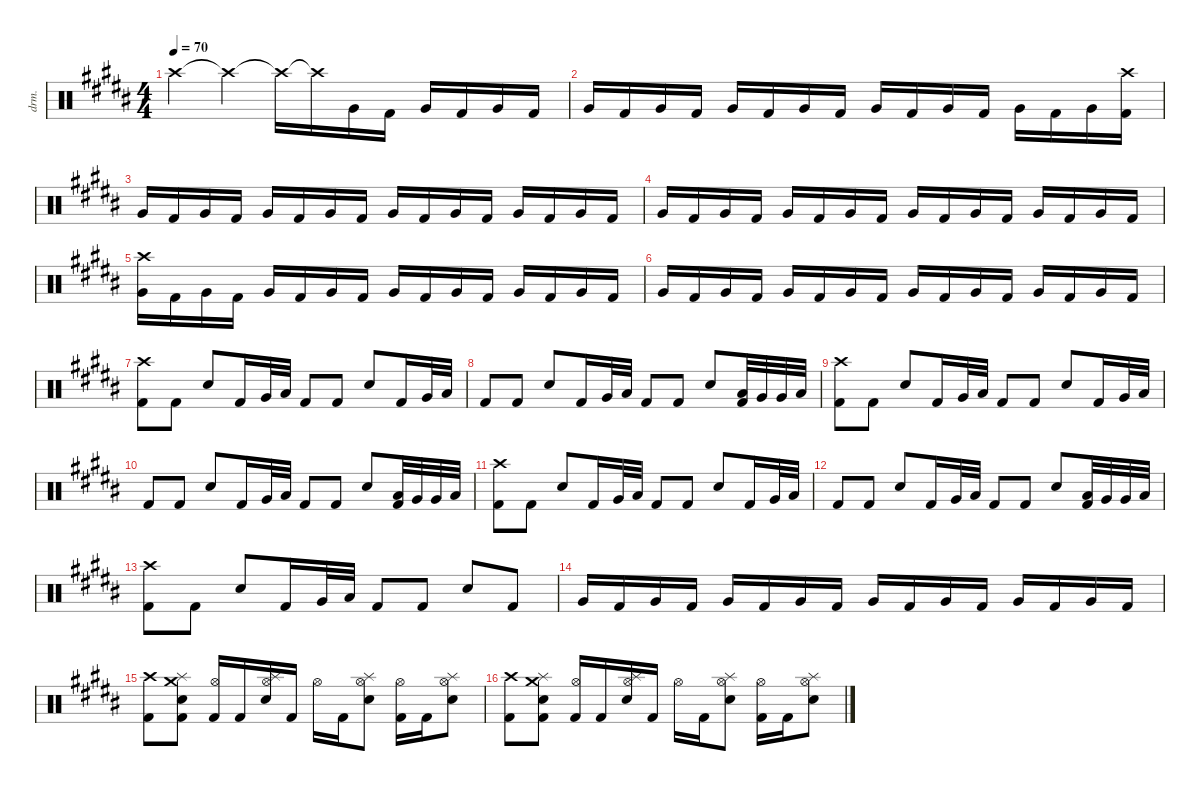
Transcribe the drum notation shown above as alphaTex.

\defaultSystemsLayout 4
\hideDynamics
\bracketExtendMode nobrackets
\otherSystemsTrackNameOrientation horizontal
\track ("Drums" "drm.") {defaultSystemsLayout 4 instrument percussion}
\staff {score}
\articulation defaults
\ts (4 4)
\tempo 70
\clef neutral
\ks b "Crash high (hit)"{t acc forcenatural}.4{dy f beam Down} "Crash high (hit)"{t acc forcenatural}.4{beam Down} "Crash high (hit)"{t acc forcenatural}.16{beam Down} "Crash high (hit)"{t acc forcenatural}.16{beam Down} "Very Low Tom (hit)"{acc forcenatural}.16{beam Down} "Kick (hit) 2"{acc forcenatural}.16{beam Down} "Very Low Tom (hit)"{acc forcenatural}.16{beam Up} "Kick (hit) 2"{acc forcenatural}.16{beam Up} "Very Low Tom (hit)"{acc forcenatural}.16{beam Up} "Kick (hit) 2"{acc forcenatural}.16{beam Up}
|
"Very Low Tom (hit)"{acc forcenatural}.16{beam Up} "Kick (hit) 2"{acc forcenatural}.16{beam Up} "Very Low Tom (hit)"{acc forcenatural}.16{beam Up} "Kick (hit) 2"{acc forcenatural}.16{beam Up} "Very Low Tom (hit)"{acc forcenatural}.16{beam Up} "Kick (hit) 2"{acc forcenatural}.16{beam Up} "Very Low Tom (hit)"{acc forcenatural}.16{beam Up} "Kick (hit) 2"{acc forcenatural}.16{beam Up} "Very Low Tom (hit)"{acc forcenatural}.16{beam Up} "Kick (hit) 2"{acc forcenatural}.16{beam Up} "Very Low Tom (hit)"{acc forcenatural}.16{beam Up} "Kick (hit) 2"{acc forcenatural}.16{beam Up} "Very Low Tom (hit)"{acc forcenatural}.16{beam Down} "Kick (hit) 2"{acc forcenatural}.16{beam Down} "Very Low Tom (hit)"{acc forcenatural}.16{beam Down} ("Crash high (hit)"{acc forcenatural} "Kick (hit) 2"{acc forcenatural}).16{beam Down} |
"Very Low Tom (hit)"{acc forcenatural}.16{beam Up} "Kick (hit) 2"{acc forcenatural}.16{beam Up} "Very Low Tom (hit)"{acc forcenatural}.16{beam Up} "Kick (hit) 2"{acc forcenatural}.16{beam Up} "Very Low Tom (hit)"{acc forcenatural}.16{beam Up} "Kick (hit) 2"{acc forcenatural}.16{beam Up} "Very Low Tom (hit)"{acc forcenatural}.16{beam Up} "Kick (hit) 2"{acc forcenatural}.16{beam Up} "Very Low Tom (hit)"{acc forcenatural}.16{beam Up} "Kick (hit) 2"{acc forcenatural}.16{beam Up} "Very Low Tom (hit)"{acc forcenatural}.16{beam Up} "Kick (hit) 2"{acc forcenatural}.16{beam Up} "Very Low Tom (hit)"{acc forcenatural}.16{beam Up} "Kick (hit) 2"{acc forcenatural}.16{beam Up} "Very Low Tom (hit)"{acc forcenatural}.16{beam Up} "Kick (hit) 2"{acc forcenatural}.16{beam Up} |
"Very Low Tom (hit)"{acc forcenatural}.16{beam Up} "Kick (hit) 2"{acc forcenatural}.16{beam Up} "Very Low Tom (hit)"{acc forcenatural}.16{beam Up} "Kick (hit) 2"{acc forcenatural}.16{beam Up} "Very Low Tom (hit)"{acc forcenatural}.16{beam Up} "Kick (hit) 2"{acc forcenatural}.16{beam Up} "Very Low Tom (hit)"{acc forcenatural}.16{beam Up} "Kick (hit) 2"{acc forcenatural}.16{beam Up} "Very Low Tom (hit)"{acc forcenatural}.16{beam Up} "Kick (hit) 2"{acc forcenatural}.16{beam Up} "Very Low Tom (hit)"{acc forcenatural}.16{beam Up} "Kick (hit) 2"{acc forcenatural}.16{beam Up} "Very Low Tom (hit)"{acc forcenatural}.16{beam Up} "Kick (hit) 2"{acc forcenatural}.16{beam Up} "Very Low Tom (hit)"{acc forcenatural}.16{beam Up} "Kick (hit) 2"{acc forcenatural}.16{beam Up} |
("Crash high (hit)"{acc forcenatural} "Very Low Tom (hit)"{acc forcenatural}).16{beam Down} "Kick (hit) 2"{acc forcenatural}.16{beam Down} "Very Low Tom (hit)"{acc forcenatural}.16{beam Down} "Kick (hit) 2"{acc forcenatural}.16{beam Down} "Very Low Tom (hit)"{acc forcenatural}.16{beam Up} "Kick (hit) 2"{acc forcenatural}.16{beam Up} "Very Low Tom (hit)"{acc forcenatural}.16{beam Up} "Kick (hit) 2"{acc forcenatural}.16{beam Up} "Very Low Tom (hit)"{acc forcenatural}.16{beam Up} "Kick (hit) 2"{acc forcenatural}.16{beam Up} "Very Low Tom (hit)"{acc forcenatural}.16{beam Up} "Kick (hit) 2"{acc forcenatural}.16{beam Up} "Very Low Tom (hit)"{acc forcenatural}.16{beam Up} "Kick (hit) 2"{acc forcenatural}.16{beam Up} "Very Low Tom (hit)"{acc forcenatural}.16{beam Up} "Kick (hit) 2"{acc forcenatural}.16{beam Up} |
"Very Low Tom (hit)"{acc forcenatural}.16{beam Up} "Kick (hit) 2"{acc forcenatural}.16{beam Up} "Very Low Tom (hit)"{acc forcenatural}.16{beam Up} "Kick (hit) 2"{acc forcenatural}.16{beam Up} "Very Low Tom (hit)"{acc forcenatural}.16{beam Up} "Kick (hit) 2"{acc forcenatural}.16{beam Up} "Very Low Tom (hit)"{acc forcenatural}.16{beam Up} "Kick (hit) 2"{acc forcenatural}.16{beam Up} "Very Low Tom (hit)"{acc forcenatural}.16{beam Up} "Kick (hit) 2"{acc forcenatural}.16{beam Up} "Very Low Tom (hit)"{acc forcenatural}.16{beam Up} "Kick (hit) 2"{acc forcenatural}.16{beam Up} "Very Low Tom (hit)"{acc forcenatural}.16{beam Up} "Kick (hit) 2"{acc forcenatural}.16{beam Up} "Very Low Tom (hit)"{acc forcenatural}.16{beam Up} "Kick (hit) 2"{acc forcenatural}.16{beam Up} |
("Crash high (hit)"{acc forcenatural} "Kick (hit) 2"{acc forcenatural}).8{beam Down} "Kick (hit) 2"{acc forcenatural}.8{beam Down} "Snare (hit) 2"{acc forcenatural}.8{beam Up} "Kick (hit) 2"{acc forcenatural}.16{beam Up} "Very Low Tom (hit)"{acc forcenatural}.32{beam Up} "Low Floor Tom (hit)"{acc forcenatural}.32{beam Up} "Kick (hit) 2"{acc forcenatural}.8{beam Up} "Kick (hit) 2"{acc forcenatural}.8{beam Up} "Snare (hit) 2"{acc forcenatural}.8{beam Up} "Kick (hit) 2"{acc forcenatural}.16{beam Up} "Very Low Tom (hit)"{acc forcenatural}.32{beam Up} "Low Floor Tom (hit)"{acc forcenatural}.32{beam Up} |
"Kick (hit) 2"{acc forcenatural}.8{beam Up} "Kick (hit) 2"{acc forcenatural}.8{beam Up} "Snare (hit) 2"{acc forcenatural}.8{beam Up} "Kick (hit) 2"{acc forcenatural}.16{beam Up} "Very Low Tom (hit)"{acc forcenatural}.32{beam Up} "Low Floor Tom (hit)"{acc forcenatural}.32{beam Up} "Kick (hit) 2"{acc forcenatural}.8{beam Up} "Kick (hit) 2"{acc forcenatural}.8{beam Up} "Snare (hit) 2"{acc forcenatural}.8{beam Up} ("Low Tom (hit)"{acc forcenatural} "Kick (hit) 2"{acc forcenatural}).32{beam Up} "Very Low Tom (hit)"{acc forcenatural}.32{beam Up} "Very Low Tom (hit)"{acc forcenatural}.32{beam Up} "Low Floor Tom (hit)"{acc forcenatural}.32{beam Up} |
("Crash high (hit)"{acc forcenatural} "Kick (hit) 2"{acc forcenatural}).8{beam Down} "Kick (hit) 2"{acc forcenatural}.8{beam Down} "Snare (hit) 2"{acc forcenatural}.8{beam Up} "Kick (hit) 2"{acc forcenatural}.16{beam Up} "Very Low Tom (hit)"{acc forcenatural}.32{beam Up} "Low Floor Tom (hit)"{acc forcenatural}.32{beam Up} "Kick (hit) 2"{acc forcenatural}.8{beam Up} "Kick (hit) 2"{acc forcenatural}.8{beam Up} "Snare (hit) 2"{acc forcenatural}.8{beam Up} "Kick (hit) 2"{acc forcenatural}.16{beam Up} "Very Low Tom (hit)"{acc forcenatural}.32{beam Up} "Low Floor Tom (hit)"{acc forcenatural}.32{beam Up} |
"Kick (hit) 2"{acc forcenatural}.8{beam Up} "Kick (hit) 2"{acc forcenatural}.8{beam Up} "Snare (hit) 2"{acc forcenatural}.8{beam Up} "Kick (hit) 2"{acc forcenatural}.16{beam Up} "Very Low Tom (hit)"{acc forcenatural}.32{beam Up} "Low Floor Tom (hit)"{acc forcenatural}.32{beam Up} "Kick (hit) 2"{acc forcenatural}.8{beam Up} "Kick (hit) 2"{acc forcenatural}.8{beam Up} "Snare (hit) 2"{acc forcenatural}.8{beam Up} ("Low Tom (hit)"{acc forcenatural} "Kick (hit) 2"{acc forcenatural}).32{beam Up} "Very Low Tom (hit)"{acc forcenatural}.32{beam Up} "Very Low Tom (hit)"{acc forcenatural}.32{beam Up} "Low Floor Tom (hit)"{acc forcenatural}.32{beam Up} |
("Crash high (hit)"{acc forcenatural} "Kick (hit) 2"{acc forcenatural}).8{beam Down} "Kick (hit) 2"{acc forcenatural}.8{beam Down} "Snare (hit) 2"{acc forcenatural}.8{beam Up} "Kick (hit) 2"{acc forcenatural}.16{beam Up} "Very Low Tom (hit)"{acc forcenatural}.32{beam Up} "Low Floor Tom (hit)"{acc forcenatural}.32{beam Up} "Kick (hit) 2"{acc forcenatural}.8{beam Up} "Kick (hit) 2"{acc forcenatural}.8{beam Up} "Snare (hit) 2"{acc forcenatural}.8{beam Up} "Kick (hit) 2"{acc forcenatural}.16{beam Up} "Very Low Tom (hit)"{acc forcenatural}.32{beam Up} "Low Floor Tom (hit)"{acc forcenatural}.32{beam Up} |
"Kick (hit) 2"{acc forcenatural}.8{beam Up} "Kick (hit) 2"{acc forcenatural}.8{beam Up} "Snare (hit) 2"{acc forcenatural}.8{beam Up} "Kick (hit) 2"{acc forcenatural}.16{beam Up} "Very Low Tom (hit)"{acc forcenatural}.32{beam Up} "Low Floor Tom (hit)"{acc forcenatural}.32{beam Up} "Kick (hit) 2"{acc forcenatural}.8{beam Up} "Kick (hit) 2"{acc forcenatural}.8{beam Up} "Snare (hit) 2"{acc forcenatural}.8{beam Up} ("Low Tom (hit)"{acc forcenatural} "Kick (hit) 2"{acc forcenatural}).32{beam Up} "Very Low Tom (hit)"{acc forcenatural}.32{beam Up} "Very Low Tom (hit)"{acc forcenatural}.32{beam Up} "Low Floor Tom (hit)"{acc forcenatural}.32{beam Up} |
("Crash high (hit)"{acc forcenatural} "Kick (hit) 2"{acc forcenatural}).8{beam Down} "Kick (hit) 2"{acc forcenatural}.8{beam Down} "Snare (hit) 2"{acc forcenatural}.8{beam Up} "Kick (hit) 2"{acc forcenatural}.16{beam Up} "Very Low Tom (hit)"{acc forcenatural}.32{beam Up} "Low Floor Tom (hit)"{acc forcenatural}.32{beam Up} "Kick (hit) 2"{acc forcenatural}.8{beam Up} "Kick (hit) 2"{acc forcenatural}.8{beam Up} "Snare (hit) 2"{acc forcenatural}.8{beam Up} "Kick (hit) 2"{acc forcenatural}.8{beam Up} |
"Very Low Tom (hit)"{acc forcenatural}.16{beam Up} "Kick (hit) 2"{acc forcenatural}.16{beam Up} "Very Low Tom (hit)"{acc forcenatural}.16{beam Up} "Kick (hit) 2"{acc forcenatural}.16{beam Up} "Very Low Tom (hit)"{acc forcenatural}.16{beam Up} "Kick (hit) 2"{acc forcenatural}.16{beam Up} "Very Low Tom (hit)"{acc forcenatural}.16{beam Up} "Kick (hit) 2"{acc forcenatural}.16{beam Up} "Very Low Tom (hit)"{acc forcenatural}.16{beam Up} "Kick (hit) 2"{acc forcenatural}.16{beam Up} "Very Low Tom (hit)"{acc forcenatural}.16{beam Up} "Kick (hit) 2"{acc forcenatural}.16{beam Up} "Very Low Tom (hit)"{acc forcenatural}.16{beam Up} "Kick (hit) 2"{acc forcenatural}.16{beam Up} "Very Low Tom (hit)"{acc forcenatural}.16{beam Up} "Kick (hit) 2"{acc forcenatural}.16{beam Up} |
("Crash high (hit)"{acc forcenatural} "Kick (hit) 2"{acc forcenatural}).8{beam Down} ("Crash medium (hit)"{acc forcenatural} "Splash (hit)"{acc forcenatural} "Snare (hit) 2"{acc forcenatural} "Kick (hit) 2"{acc forcenatural}).8{beam Down} ("Hi-Hat (open)"{acc forcenatural} "Kick (hit) 2"{acc forcenatural}).16{beam Up} "Kick (hit) 2"{acc forcenatural}.16{beam Up} ("Hi-Hat (open)"{acc forcenatural} "Splash (hit)"{acc forcenatural} "Snare (hit) 2"{acc forcenatural}).16{beam Up} "Kick (hit) 2"{acc forcenatural}.16{beam Up} "Hi-Hat (open)"{acc forcenatural}.16{beam Down} "Kick (hit) 2"{acc forcenatural}.16{beam Down} ("Hi-Hat (open)"{acc forcenatural} "Splash (hit)"{acc forcenatural} "Snare (hit) 2"{acc forcenatural}).8{beam Down} ("Hi-Hat (open)"{acc forcenatural} "Kick (hit) 2"{acc forcenatural}).16{beam Down} "Kick (hit) 2"{acc forcenatural}.16{beam Down} ("Hi-Hat (open)"{acc forcenatural} "Splash (hit)"{acc forcenatural} "Snare (hit) 2"{acc forcenatural}).8{beam Down} |
("Crash high (hit)"{acc forcenatural} "Kick (hit) 2"{acc forcenatural}).8{beam Down} ("Crash medium (hit)"{acc forcenatural} "Splash (hit)"{acc forcenatural} "Snare (hit) 2"{acc forcenatural} "Kick (hit) 2"{acc forcenatural}).8{beam Down} ("Hi-Hat (open)"{acc forcenatural} "Kick (hit) 2"{acc forcenatural}).16{beam Up} "Kick (hit) 2"{acc forcenatural}.16{beam Up} ("Hi-Hat (open)"{acc forcenatural} "Splash (hit)"{acc forcenatural} "Snare (hit) 2"{acc forcenatural}).16{beam Up} "Kick (hit) 2"{acc forcenatural}.16{beam Up} "Hi-Hat (open)"{acc forcenatural}.16{beam Down} "Kick (hit) 2"{acc forcenatural}.16{beam Down} ("Hi-Hat (open)"{acc forcenatural} "Splash (hit)"{acc forcenatural} "Snare (hit) 2"{acc forcenatural}).8{beam Down} ("Hi-Hat (open)"{acc forcenatural} "Kick (hit) 2"{acc forcenatural}).16{beam Down} "Kick (hit) 2"{acc forcenatural}.16{beam Down} ("Hi-Hat (open)"{acc forcenatural} "Splash (hit)"{acc forcenatural} "Snare (hit) 2"{acc forcenatural}).8{beam Down}
